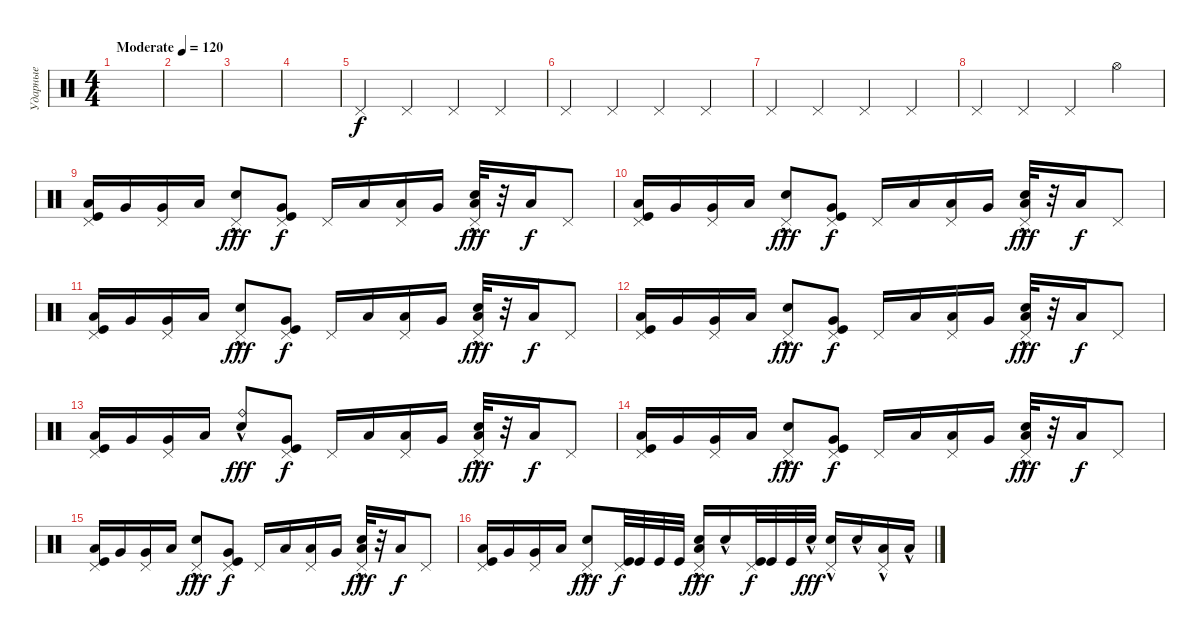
\track ("Ударные" "Ударные") {instrument percussion}
\staff {score}
\articulation defaults
\ts (4 4)
\tempo (120 "Moderate")
\clef neutral
\ks c
|
|
|
|
"Pedal Hi-Hat (hit)".4 "Pedal Hi-Hat (hit)".4 "Pedal Hi-Hat (hit)".4 "Pedal Hi-Hat (hit)".4 |
"Pedal Hi-Hat (hit)".4 "Pedal Hi-Hat (hit)".4 "Pedal Hi-Hat (hit)".4 "Pedal Hi-Hat (hit)".4 |
"Pedal Hi-Hat (hit)".4 "Pedal Hi-Hat (hit)".4 "Pedal Hi-Hat (hit)".4 "Pedal Hi-Hat (hit)".4 |
"Pedal Hi-Hat (hit)".4 "Pedal Hi-Hat (hit)".4 "Pedal Hi-Hat (hit)".4 "Hi-Hat (open)".4 |
("Kick (hit)" "Low Floor Tom (hit)" "Pedal Hi-Hat (hit)").16 "Very Low Tom (hit)".16 ("Very Low Tom (hit)" "Pedal Hi-Hat (hit)").16 "Low Floor Tom (hit)".16 ("Electric Snare (hit)"{hac} "Pedal Hi-Hat (hit)").8{dy fff} ("Kick (hit)" "Very Low Tom (hit)" "Pedal Hi-Hat (hit)").8{dy f} "Pedal Hi-Hat (hit)".16 "Low Floor Tom (hit)".16 ("Low Floor Tom (hit)" "Pedal Hi-Hat (hit)").16 "Very Low Tom (hit)".16 ("Electric Snare (hit)"{hac} "Low Floor Tom (hit)" "Pedal Hi-Hat (hit)").32{dy fff} r.32 "Low Floor Tom (hit)".16{dy f} "Pedal Hi-Hat (hit)".8 |
("Kick (hit)" "Low Floor Tom (hit)" "Pedal Hi-Hat (hit)").16 "Very Low Tom (hit)".16 ("Very Low Tom (hit)" "Pedal Hi-Hat (hit)").16 "Low Floor Tom (hit)".16 ("Electric Snare (hit)"{hac} "Pedal Hi-Hat (hit)").8{dy fff} ("Kick (hit)" "Very Low Tom (hit)" "Pedal Hi-Hat (hit)").8{dy f} "Pedal Hi-Hat (hit)".16 "Low Floor Tom (hit)".16 ("Low Floor Tom (hit)" "Pedal Hi-Hat (hit)").16 "Very Low Tom (hit)".16 ("Electric Snare (hit)"{hac} "Low Floor Tom (hit)" "Pedal Hi-Hat (hit)").32{dy fff} r.32 "Low Floor Tom (hit)".16{dy f} "Pedal Hi-Hat (hit)".8 |
("Kick (hit)" "Low Floor Tom (hit)" "Pedal Hi-Hat (hit)").16 "Very Low Tom (hit)".16 ("Very Low Tom (hit)" "Pedal Hi-Hat (hit)").16 "Low Floor Tom (hit)".16 ("Electric Snare (hit)"{hac} "Pedal Hi-Hat (hit)").8{dy fff} ("Kick (hit)" "Very Low Tom (hit)" "Pedal Hi-Hat (hit)").8{dy f} "Pedal Hi-Hat (hit)".16 "Low Floor Tom (hit)".16 ("Low Floor Tom (hit)" "Pedal Hi-Hat (hit)").16 "Very Low Tom (hit)".16 ("Electric Snare (hit)"{hac} "Low Floor Tom (hit)" "Pedal Hi-Hat (hit)").32{dy fff} r.32 "Low Floor Tom (hit)".16{dy f} "Pedal Hi-Hat (hit)".8 |
("Kick (hit)" "Low Floor Tom (hit)" "Pedal Hi-Hat (hit)").16 "Very Low Tom (hit)".16 ("Very Low Tom (hit)" "Pedal Hi-Hat (hit)").16 "Low Floor Tom (hit)".16 ("Electric Snare (hit)"{hac} "Pedal Hi-Hat (hit)").8{dy fff} ("Kick (hit)" "Very Low Tom (hit)" "Pedal Hi-Hat (hit)").8{dy f} "Pedal Hi-Hat (hit)".16 "Low Floor Tom (hit)".16 ("Low Floor Tom (hit)" "Pedal Hi-Hat (hit)").16 "Very Low Tom (hit)".16 ("Electric Snare (hit)"{hac} "Low Floor Tom (hit)" "Pedal Hi-Hat (hit)").32{dy fff} r.32 "Low Floor Tom (hit)".16{dy f} "Pedal Hi-Hat (hit)".8 |
("Kick (hit)" "Low Floor Tom (hit)" "Pedal Hi-Hat (hit)").16 "Very Low Tom (hit)".16 ("Very Low Tom (hit)" "Pedal Hi-Hat (hit)").16 "Low Floor Tom (hit)".16 ("Electric Snare (hit)"{hac} "Ride (bell)"{hac}).8{dy fff} ("Kick (hit)" "Very Low Tom (hit)" "Pedal Hi-Hat (hit)").8{dy f} "Pedal Hi-Hat (hit)".16 "Low Floor Tom (hit)".16 ("Low Floor Tom (hit)" "Pedal Hi-Hat (hit)").16 "Very Low Tom (hit)".16 ("Electric Snare (hit)"{hac} "Low Floor Tom (hit)" "Pedal Hi-Hat (hit)").32{dy fff} r.32 "Low Floor Tom (hit)".16{dy f} "Pedal Hi-Hat (hit)".8 |
("Kick (hit)" "Low Floor Tom (hit)" "Pedal Hi-Hat (hit)").16 "Very Low Tom (hit)".16 ("Very Low Tom (hit)" "Pedal Hi-Hat (hit)").16 "Low Floor Tom (hit)".16 ("Electric Snare (hit)"{hac} "Pedal Hi-Hat (hit)").8{dy fff} ("Kick (hit)" "Very Low Tom (hit)" "Pedal Hi-Hat (hit)").8{dy f} "Pedal Hi-Hat (hit)".16 "Low Floor Tom (hit)".16 ("Low Floor Tom (hit)" "Pedal Hi-Hat (hit)").16 "Very Low Tom (hit)".16 ("Electric Snare (hit)"{hac} "Low Floor Tom (hit)" "Pedal Hi-Hat (hit)").32{dy fff} r.32 "Low Floor Tom (hit)".16{dy f} "Pedal Hi-Hat (hit)".8 |
("Kick (hit)" "Low Floor Tom (hit)" "Pedal Hi-Hat (hit)").16 "Very Low Tom (hit)".16 ("Very Low Tom (hit)" "Pedal Hi-Hat (hit)").16 "Low Floor Tom (hit)".16 ("Electric Snare (hit)"{hac} "Pedal Hi-Hat (hit)").8{dy fff} ("Kick (hit)" "Very Low Tom (hit)" "Pedal Hi-Hat (hit)").8{dy f} "Pedal Hi-Hat (hit)".16 "Low Floor Tom (hit)".16 ("Low Floor Tom (hit)" "Pedal Hi-Hat (hit)").16 "Very Low Tom (hit)".16 ("Electric Snare (hit)"{hac} "Low Floor Tom (hit)" "Pedal Hi-Hat (hit)").32{dy fff} r.32 "Low Floor Tom (hit)".16{dy f} "Pedal Hi-Hat (hit)".8 |
("Kick (hit)" "Low Floor Tom (hit)" "Pedal Hi-Hat (hit)").16 "Very Low Tom (hit)".16 ("Very Low Tom (hit)" "Pedal Hi-Hat (hit)").16 "Low Floor Tom (hit)".16 ("Electric Snare (hit)"{hac} "Pedal Hi-Hat (hit)").8{dy fff} ("Kick (hit)" "Pedal Hi-Hat (hit)").32{dy f} "Kick (hit)".32 "Kick (hit)".32 "Kick (hit)".32 ("Electric Snare (hit)"{hac} "Low Floor Tom (hit)" "Pedal Hi-Hat (hit)").16{dy fff} "Electric Snare (hit)"{hac}.16 ("Kick (hit)" "Pedal Hi-Hat (hit)").32{dy f} "Kick (hit)".32 "Kick (hit)".32 "Electric Snare (hit)"{hac}.32{dy fff} ("Electric Snare (hit)"{hac} "Pedal Hi-Hat (hit)").16 "Electric Snare (hit)"{hac}.16 ("Low Tom (hit)"{hac} "Pedal Hi-Hat (hit)").16 "Low Tom (hit)"{hac}.16
